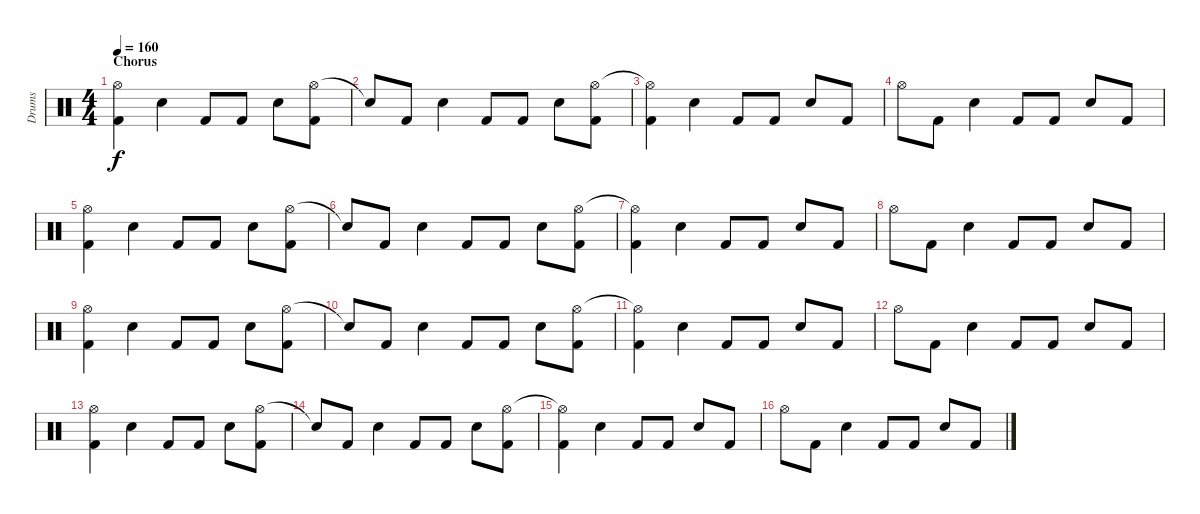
\track ("Drums" "Drums") {instrument percussion}
\staff {score}
\articulation defaults
\ts (4 4)
\section ("" "Chorus")
\tempo 160
\clef neutral
\ks c
("Hi-Hat (open)" "Kick (hit) 2").4{dy f} "Snare (hit) 2".4 "Kick (hit) 2".8 "Kick (hit) 2".8 "Snare (hit) 2".8 ("Hi-Hat (open)" "Kick (hit) 2").8 |
"Snare (hit)"{t}.8 "Kick (hit) 2".8 "Snare (hit) 2".4 "Kick (hit) 2".8 "Kick (hit) 2".8 "Snare (hit) 2".8 ("Hi-Hat (open)" "Kick (hit) 2").8 |
("Hi-Hat (open)"{t} "Kick (hit) 2").4 "Snare (hit) 2".4 "Kick (hit) 2".8 "Kick (hit) 2".8 "Snare (hit) 2".8 "Kick (hit) 2".8 |
"Hi-Hat (open)".8 "Kick (hit) 2".8 "Snare (hit) 2".4 "Kick (hit) 2".8 "Kick (hit) 2".8 "Snare (hit) 2".8 "Kick (hit) 2".8 |
("Hi-Hat (open)" "Kick (hit) 2").4 "Snare (hit) 2".4 "Kick (hit) 2".8 "Kick (hit) 2".8 "Snare (hit) 2".8 ("Hi-Hat (open)" "Kick (hit) 2").8 |
"Snare (hit)"{t}.8 "Kick (hit) 2".8 "Snare (hit) 2".4 "Kick (hit) 2".8 "Kick (hit) 2".8 "Snare (hit) 2".8 ("Hi-Hat (open)" "Kick (hit) 2").8 |
("Hi-Hat (open)"{t} "Kick (hit) 2").4 "Snare (hit) 2".4 "Kick (hit) 2".8 "Kick (hit) 2".8 "Snare (hit) 2".8 "Kick (hit) 2".8 |
"Hi-Hat (open)".8 "Kick (hit) 2".8 "Snare (hit) 2".4 "Kick (hit) 2".8 "Kick (hit) 2".8 "Snare (hit) 2".8 "Kick (hit) 2".8 |
("Hi-Hat (open)" "Kick (hit) 2").4 "Snare (hit) 2".4 "Kick (hit) 2".8 "Kick (hit) 2".8 "Snare (hit) 2".8 ("Hi-Hat (open)" "Kick (hit) 2").8 |
"Snare (hit)"{t}.8 "Kick (hit) 2".8 "Snare (hit) 2".4 "Kick (hit) 2".8 "Kick (hit) 2".8 "Snare (hit) 2".8 ("Hi-Hat (open)" "Kick (hit) 2").8 |
("Hi-Hat (open)"{t} "Kick (hit) 2").4 "Snare (hit) 2".4 "Kick (hit) 2".8 "Kick (hit) 2".8 "Snare (hit) 2".8 "Kick (hit) 2".8 |
"Hi-Hat (open)".8 "Kick (hit) 2".8 "Snare (hit) 2".4 "Kick (hit) 2".8 "Kick (hit) 2".8 "Snare (hit) 2".8 "Kick (hit) 2".8 |
("Hi-Hat (open)" "Kick (hit) 2").4 "Snare (hit) 2".4 "Kick (hit) 2".8 "Kick (hit) 2".8 "Snare (hit) 2".8 ("Hi-Hat (open)" "Kick (hit) 2").8 |
"Snare (hit)"{t}.8 "Kick (hit) 2".8 "Snare (hit) 2".4 "Kick (hit) 2".8 "Kick (hit) 2".8 "Snare (hit) 2".8 ("Hi-Hat (open)" "Kick (hit) 2").8 |
("Hi-Hat (open)"{t} "Kick (hit) 2").4 "Snare (hit) 2".4 "Kick (hit) 2".8 "Kick (hit) 2".8 "Snare (hit) 2".8 "Kick (hit) 2".8 |
"Hi-Hat (open)".8 "Kick (hit) 2".8 "Snare (hit) 2".4 "Kick (hit) 2".8 "Kick (hit) 2".8 "Snare (hit) 2".8 "Kick (hit) 2".8
